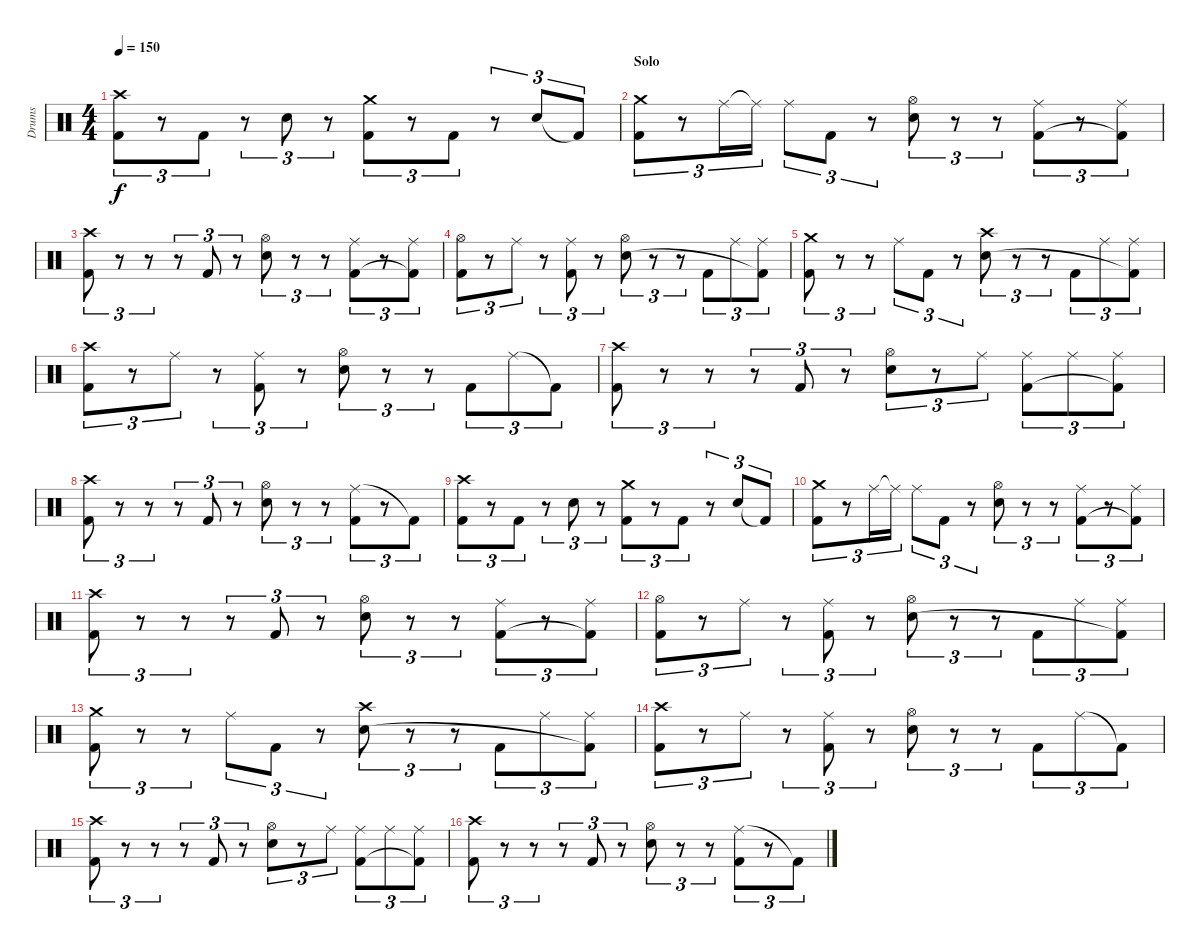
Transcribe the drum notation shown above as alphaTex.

\track ("Drums" "Drums") {instrument percussion}
\staff {score}
\articulation defaults
\ts (4 4)
\tempo 150
\clef neutral
\ks c
("Crash high (hit)" "Kick (hit) 2").8{tu (3 2) dy f} r.8{tu (3 2)} "Kick (hit) 2".8{tu (3 2)} r.8{tu (3 2)} "Electric Snare (hit)".8{tu (3 2)} r.8{tu (3 2)} ("Crash medium (hit)" "Kick (hit) 2").8{tu (3 2)} r.8{tu (3 2)} "Kick (hit) 2".8{tu (3 2)} r.8{tu (3 2)} "Electric Snare (hit)".8{tu (3 2)} "Kick (hit) 2"{t}.8{tu (3 2)} |
\section ("" "Solo")
("Crash medium (hit)" "Kick (hit) 2").8{tu (3 2)} r.8{tu (3 2)} "Ride (middle)".16{tu (3 2)} "Ride (middle)"{t}.16{tu (3 2)} "Ride (middle)".8{tu (3 2)} "Kick (hit) 2".8{tu (3 2)} r.8{tu (3 2)} ("Hi-Hat (open)" "Electric Snare (hit)").8{tu (3 2)} r.8{tu (3 2)} r.8{tu (3 2)} ("Ride (middle)" "Kick (hit) 2").8{tu (3 2)} r.8{tu (3 2)} ("Ride (middle)" "Kick (hit) 2"{t}).8{tu (3 2)} |
("Crash high (hit)" "Kick (hit) 2").8{tu (3 2)} r.8{tu (3 2)} r.8{tu (3 2)} r.8{tu (3 2)} "Kick (hit) 2".8{tu (3 2)} r.8{tu (3 2)} ("Hi-Hat (open)" "Electric Snare (hit)").8{tu (3 2)} r.8{tu (3 2)} r.8{tu (3 2)} ("Ride (middle)" "Kick (hit) 2").8{tu (3 2)} r.8{tu (3 2)} ("Ride (middle)" "Kick (hit) 2"{t}).8{tu (3 2)} |
("Hi-Hat (open)" "Kick (hit) 2").8{tu (3 2)} r.8{tu (3 2)} "Ride (middle)".8{tu (3 2)} r.8{tu (3 2)} ("Ride (middle)" "Kick (hit) 2").8{tu (3 2)} r.8{tu (3 2)} ("Hi-Hat (open)" "Electric Snare (hit)").8{tu (3 2)} r.8{tu (3 2)} r.8{tu (3 2)} "Kick (hit) 2".8{tu (3 2)} "Ride (middle)".8{tu (3 2)} ("Ride (middle)" "Kick (hit) 2"{t}).8{tu (3 2)} |
("Crash medium (hit)" "Kick (hit) 2").8{tu (3 2)} r.8{tu (3 2)} r.8{tu (3 2)} "Ride (middle)".8{tu (3 2)} "Kick (hit) 2".8{tu (3 2)} r.8{tu (3 2)} ("Crash high (hit)" "Electric Snare (hit)").8{tu (3 2)} r.8{tu (3 2)} r.8{tu (3 2)} "Kick (hit) 2".8{tu (3 2)} "Ride (middle)".8{tu (3 2)} ("Ride (middle)" "Kick (hit) 2"{t}).8{tu (3 2)} |
("Crash high (hit)" "Kick (hit) 2").8{tu (3 2)} r.8{tu (3 2)} "Ride (middle)".8{tu (3 2)} r.8{tu (3 2)} ("Ride (middle)" "Kick (hit) 2").8{tu (3 2)} r.8{tu (3 2)} ("Hi-Hat (open)" "Electric Snare (hit)").8{tu (3 2)} r.8{tu (3 2)} r.8{tu (3 2)} "Kick (hit) 2".8{tu (3 2)} "Ride (middle)".8{tu (3 2)} "Kick (hit) 2"{t}.8{tu (3 2)} |
("Crash high (hit)" "Kick (hit) 2").8{tu (3 2)} r.8{tu (3 2)} r.8{tu (3 2)} r.8{tu (3 2)} "Kick (hit) 2".8{tu (3 2)} r.8{tu (3 2)} ("Hi-Hat (open)" "Electric Snare (hit)").8{tu (3 2)} r.8{tu (3 2)} "Ride (middle)".8{tu (3 2)} ("Ride (middle)" "Kick (hit) 2").8{tu (3 2)} "Ride (middle)".8{tu (3 2)} ("Ride (middle)" "Kick (hit) 2"{t}).8{tu (3 2)} |
("Crash high (hit)" "Kick (hit) 2").8{tu (3 2)} r.8{tu (3 2)} r.8{tu (3 2)} r.8{tu (3 2)} "Kick (hit) 2".8{tu (3 2)} r.8{tu (3 2)} ("Hi-Hat (open)" "Electric Snare (hit)").8{tu (3 2)} r.8{tu (3 2)} r.8{tu (3 2)} ("Ride (middle)" "Kick (hit) 2").8{tu (3 2)} r.8{tu (3 2)} "Kick (hit) 2"{t}.8{tu (3 2)} |
("Crash high (hit)" "Kick (hit) 2").8{tu (3 2)} r.8{tu (3 2)} "Kick (hit) 2".8{tu (3 2)} r.8{tu (3 2)} "Electric Snare (hit)".8{tu (3 2)} r.8{tu (3 2)} ("Crash medium (hit)" "Kick (hit) 2").8{tu (3 2)} r.8{tu (3 2)} "Kick (hit) 2".8{tu (3 2)} r.8{tu (3 2)} "Electric Snare (hit)".8{tu (3 2)} "Kick (hit) 2"{t}.8{tu (3 2)} |
("Crash medium (hit)" "Kick (hit) 2").8{tu (3 2)} r.8{tu (3 2)} "Ride (middle)".16{tu (3 2)} "Ride (middle)"{t}.16{tu (3 2)} "Ride (middle)".8{tu (3 2)} "Kick (hit) 2".8{tu (3 2)} r.8{tu (3 2)} ("Hi-Hat (open)" "Electric Snare (hit)").8{tu (3 2)} r.8{tu (3 2)} r.8{tu (3 2)} ("Ride (middle)" "Kick (hit) 2").8{tu (3 2)} r.8{tu (3 2)} ("Ride (middle)" "Kick (hit) 2"{t}).8{tu (3 2)} |
("Crash high (hit)" "Kick (hit) 2").8{tu (3 2)} r.8{tu (3 2)} r.8{tu (3 2)} r.8{tu (3 2)} "Kick (hit) 2".8{tu (3 2)} r.8{tu (3 2)} ("Hi-Hat (open)" "Electric Snare (hit)").8{tu (3 2)} r.8{tu (3 2)} r.8{tu (3 2)} ("Ride (middle)" "Kick (hit) 2").8{tu (3 2)} r.8{tu (3 2)} ("Ride (middle)" "Kick (hit) 2"{t}).8{tu (3 2)} |
("Hi-Hat (open)" "Kick (hit) 2").8{tu (3 2)} r.8{tu (3 2)} "Ride (middle)".8{tu (3 2)} r.8{tu (3 2)} ("Ride (middle)" "Kick (hit) 2").8{tu (3 2)} r.8{tu (3 2)} ("Hi-Hat (open)" "Electric Snare (hit)").8{tu (3 2)} r.8{tu (3 2)} r.8{tu (3 2)} "Kick (hit) 2".8{tu (3 2)} "Ride (middle)".8{tu (3 2)} ("Ride (middle)" "Kick (hit) 2"{t}).8{tu (3 2)} |
("Crash medium (hit)" "Kick (hit) 2").8{tu (3 2)} r.8{tu (3 2)} r.8{tu (3 2)} "Ride (middle)".8{tu (3 2)} "Kick (hit) 2".8{tu (3 2)} r.8{tu (3 2)} ("Crash high (hit)" "Electric Snare (hit)").8{tu (3 2)} r.8{tu (3 2)} r.8{tu (3 2)} "Kick (hit) 2".8{tu (3 2)} "Ride (middle)".8{tu (3 2)} ("Ride (middle)" "Kick (hit) 2"{t}).8{tu (3 2)} |
("Crash high (hit)" "Kick (hit) 2").8{tu (3 2)} r.8{tu (3 2)} "Ride (middle)".8{tu (3 2)} r.8{tu (3 2)} ("Ride (middle)" "Kick (hit) 2").8{tu (3 2)} r.8{tu (3 2)} ("Hi-Hat (open)" "Electric Snare (hit)").8{tu (3 2)} r.8{tu (3 2)} r.8{tu (3 2)} "Kick (hit) 2".8{tu (3 2)} "Ride (middle)".8{tu (3 2)} "Kick (hit) 2"{t}.8{tu (3 2)} |
("Crash high (hit)" "Kick (hit) 2").8{tu (3 2)} r.8{tu (3 2)} r.8{tu (3 2)} r.8{tu (3 2)} "Kick (hit) 2".8{tu (3 2)} r.8{tu (3 2)} ("Hi-Hat (open)" "Electric Snare (hit)").8{tu (3 2)} r.8{tu (3 2)} "Ride (middle)".8{tu (3 2)} ("Ride (middle)" "Kick (hit) 2").8{tu (3 2)} "Ride (middle)".8{tu (3 2)} ("Ride (middle)" "Kick (hit) 2"{t}).8{tu (3 2)} |
("Crash high (hit)" "Kick (hit) 2").8{tu (3 2)} r.8{tu (3 2)} r.8{tu (3 2)} r.8{tu (3 2)} "Kick (hit) 2".8{tu (3 2)} r.8{tu (3 2)} ("Hi-Hat (open)" "Electric Snare (hit)").8{tu (3 2)} r.8{tu (3 2)} r.8{tu (3 2)} ("Ride (middle)" "Kick (hit) 2").8{tu (3 2)} r.8{tu (3 2)} "Kick (hit) 2"{t}.8{tu (3 2)}
